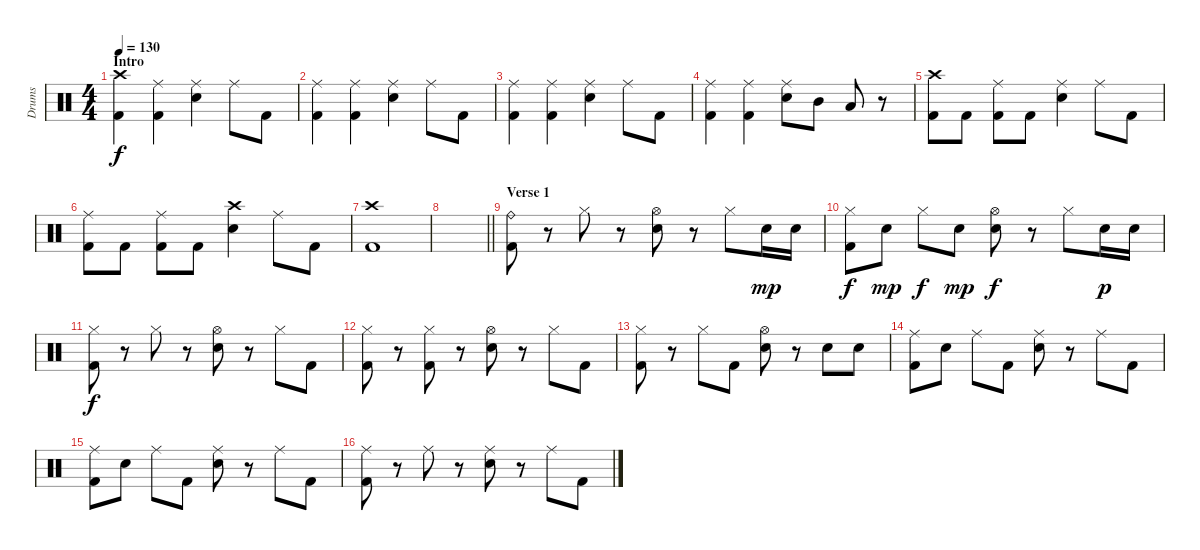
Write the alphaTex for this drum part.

\track ("Drums" "Drums") {instrument percussion}
\staff {score}
\articulation defaults
\ts (4 4)
\section ("" "Intro")
\tempo 130
\clef neutral
\ks c
("Crash high (hit)" "Kick (hit) 2").4{dy f} ("Ride (middle)" "Kick (hit) 2").4 ("Ride (middle)" "Snare (hit) 2").4 "Ride (middle)".8 "Kick (hit) 2".8 |
("Ride (middle)" "Kick (hit) 2").4 ("Ride (middle)" "Kick (hit) 2").4 ("Ride (middle)" "Snare (hit) 2").4 "Ride (middle)".8 "Kick (hit) 2".8 |
("Ride (middle)" "Kick (hit) 2").4 ("Ride (middle)" "Kick (hit) 2").4 ("Ride (middle)" "Snare (hit) 2").4 "Ride (middle)".8 "Kick (hit) 2".8 |
("Ride (middle)" "Kick (hit) 2").4 ("Ride (middle)" "Kick (hit) 2").4 ("Ride (middle)" "Snare (hit) 2").8 "Mid Tom (hit)".8 "Low Tom (hit)".8 r.8 |
("Crash high (hit)" "Kick (hit) 2").8 "Kick (hit) 2".8 ("Ride (middle)" "Kick (hit) 2").8 "Kick (hit) 2".8 ("Ride (middle)" "Snare (hit) 2").4 "Ride (middle)".8 "Kick (hit) 2".8 |
("Ride (middle)" "Kick (hit) 2").8 "Kick (hit) 2".8 ("Ride (middle)" "Kick (hit) 2").8 "Kick (hit) 2".8 ("Crash high (hit)" "Snare (hit) 2").4 "Ride (middle)".8 "Kick (hit) 2".8 |
("Crash high (hit)" "Kick (hit) 2").1 |
\barLineRight lightlight
|
\section ("" "Verse 1")
("Ride (bell)" "Kick (hit) 2").8{volume 14} r.8 "Hi-Hat (closed)".8 r.8 ("Hi-Hat (open)" "Snare (hit) 2").8 r.8 "Hi-Hat (closed)".8 "Snare (hit) 2".16{dy mp} "Snare (hit) 2".16 |
("Hi-Hat (closed)" "Kick (hit) 2").8{dy f} "Snare (hit) 2".8{dy mp} "Hi-Hat (closed)".8{dy f} "Snare (hit) 2".8{dy mp} ("Hi-Hat (open)" "Snare (hit) 2").8{dy f} r.8 "Hi-Hat (closed)".8 "Snare (hit) 2".16{dy p} "Snare (hit) 2".16 |
("Hi-Hat (closed)" "Kick (hit) 2").8{dy f} r.8 "Hi-Hat (closed)".8 r.8 ("Hi-Hat (open)" "Snare (hit) 2").8 r.8 "Hi-Hat (closed)".8 "Kick (hit) 2".8 |
("Hi-Hat (closed)" "Kick (hit) 2").8 r.8 ("Hi-Hat (closed)" "Kick (hit) 2").8 r.8 ("Hi-Hat (open)" "Snare (hit) 2").8 r.8 "Hi-Hat (closed)".8 "Kick (hit) 2".8 |
("Hi-Hat (closed)" "Kick (hit) 2").8 r.8 "Hi-Hat (closed)".8 "Kick (hit) 2".8 ("Hi-Hat (open)" "Snare (hit) 2").8 r.8 "Snare (hit) 2".8 "Snare (hit) 2".8 |
("Ride (middle)" "Kick (hit) 2").8 "Snare (hit) 2".8 "Ride (middle)".8 "Kick (hit) 2".8 ("Ride (middle)" "Snare (hit) 2").8 r.8 "Ride (middle)".8 "Kick (hit) 2".8 |
("Ride (middle)" "Kick (hit) 2").8 "Snare (hit) 2".8 "Ride (middle)".8 "Kick (hit) 2".8 ("Ride (middle)" "Snare (hit) 2").8 r.8 "Ride (middle)".8 "Kick (hit) 2".8 |
("Ride (middle)" "Kick (hit) 2").8 r.8 "Ride (middle)".8 r.8 ("Ride (middle)" "Snare (hit) 2").8 r.8 "Ride (middle)".8 "Kick (hit) 2".8
